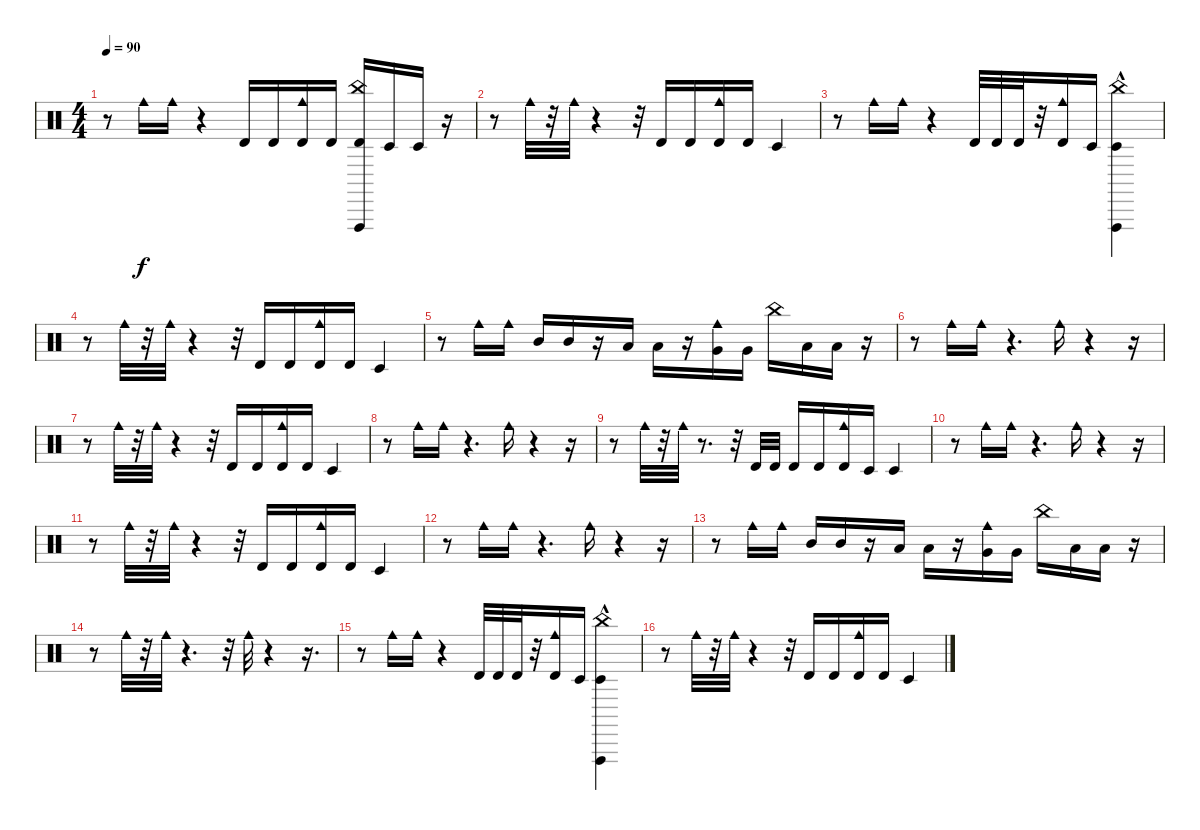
\track "" {instrument percussion}
\staff {score}
\articulation defaults
\ts (4 4)
\tempo 90
\clef neutral
\ks c
r.8{dy f} "Cowbell medium (hit)".16 "Cowbell medium (hit)".16 r.4 "Timbale high (hit)".16 "Timbale high (hit)".16 ("Timbale high (hit)" "Cowbell medium (hit)").16 "Timbale high (hit)".16 ("China (hit)" "Vibraslap (hit)" "Timbale high (hit)").16 "Timbale low (hit)".16 "Timbale low (hit)".16 r.16 |
r.8 "Cowbell medium (hit)".32 r.32 "Cowbell medium (hit)".32 r.4 r.32 "Timbale high (hit)".16 "Timbale high (hit)".16 ("Cowbell medium (hit)" "Timbale high (hit)").16 "Timbale high (hit)".16 "Timbale low (hit)".4 |
r.8 "Cowbell medium (hit)".16 "Cowbell medium (hit)".16 r.4 "Timbale high (hit)".32 "Timbale high (hit)".32 "Timbale high (hit)".32 r.32 ("Timbale high (hit)" "Cowbell medium (hit)").16 "Timbale low (hit)".16 ("Vibraslap (hit)"{hac} "China (hit)" "Timbale low (hit)").4 |
r.8 "Cowbell medium (hit)".32 r.32 "Cowbell medium (hit)".32 r.4 r.32 "Timbale high (hit)".16 "Timbale high (hit)".16 ("Timbale high (hit)" "Cowbell medium (hit)").16 "Timbale high (hit)".16 "Timbale low (hit)".4 |
r.8 "Cowbell medium (hit)".16 "Cowbell medium (hit)".16 "Mid Tom (hit)".16 "Mid Tom (hit)".16 r.16 "Low Tom (hit)".16 "Low Tom (hit)".16 r.16 ("Very Low Tom (hit)" "Cowbell medium (hit)").16 "Very Low Tom (hit)".16 "China (hit)".16 "Low Floor Tom (hit)".16 "Low Floor Tom (hit)".16 r.16 |
r.8 "Cowbell medium (hit)".16 "Cowbell medium (hit)".16 r.4{d} "Cowbell medium (hit)".16 r.4 r.16 |
r.8 "Cowbell medium (hit)".32 r.32 "Cowbell medium (hit)".32 r.4 r.32 "Timbale high (hit)".16 "Timbale high (hit)".16 ("Cowbell medium (hit)" "Timbale high (hit)").16 "Timbale high (hit)".16 "Timbale low (hit)".4 |
r.8 "Cowbell medium (hit)".16 "Cowbell medium (hit)".16 r.4{d} "Cowbell medium (hit)".16 r.4 r.16 |
r.8 "Cowbell medium (hit)".32 r.32 "Cowbell medium (hit)".32 r.8{d} r.32 "Timbale high (hit)".32 "Timbale high (hit)".32 "Timbale high (hit)".16 "Timbale high (hit)".16 ("Cowbell medium (hit)" "Timbale high (hit)").16 "Timbale low (hit)".16 "Timbale low (hit)".4 |
r.8 "Cowbell medium (hit)".16 "Cowbell medium (hit)".16 r.4{d} "Cowbell medium (hit)".16 r.4 r.16 |
r.8 "Cowbell medium (hit)".32 r.32 "Cowbell medium (hit)".32 r.4 r.32 "Timbale high (hit)".16 "Timbale high (hit)".16 ("Cowbell medium (hit)" "Timbale high (hit)").16 "Timbale high (hit)".16 "Timbale low (hit)".4 |
r.8 "Cowbell medium (hit)".16 "Cowbell medium (hit)".16 r.4{d} "Cowbell medium (hit)".16 r.4 r.16 |
r.8 "Cowbell medium (hit)".16 "Cowbell medium (hit)".16 "Mid Tom (hit)".16 "Mid Tom (hit)".16 r.16 "Low Tom (hit)".16 "Low Tom (hit)".16 r.16 ("Cowbell medium (hit)" "Very Low Tom (hit)").16 "Very Low Tom (hit)".16 "China (hit)".16 "Low Floor Tom (hit)".16 "Low Floor Tom (hit)".16 r.16 |
r.8 "Cowbell medium (hit)".32 r.32 "Cowbell medium (hit)".32 r.4{d} r.32 "Cowbell medium (hit)".32 r.4 r.16{d} |
r.8 "Cowbell medium (hit)".16 "Cowbell medium (hit)".16 r.4 "Timbale high (hit)".32 "Timbale high (hit)".32 "Timbale high (hit)".32 r.32 ("Timbale high (hit)" "Cowbell medium (hit)").16 "Timbale low (hit)".16 ("Timbale low (hit)" "Vibraslap (hit)"{hac} "China (hit)").4 |
r.8 "Cowbell medium (hit)".32 r.32 "Cowbell medium (hit)".32 r.4 r.32 "Timbale high (hit)".16 "Timbale high (hit)".16 ("Timbale high (hit)" "Cowbell medium (hit)").16 "Timbale high (hit)".16 "Timbale low (hit)".4
